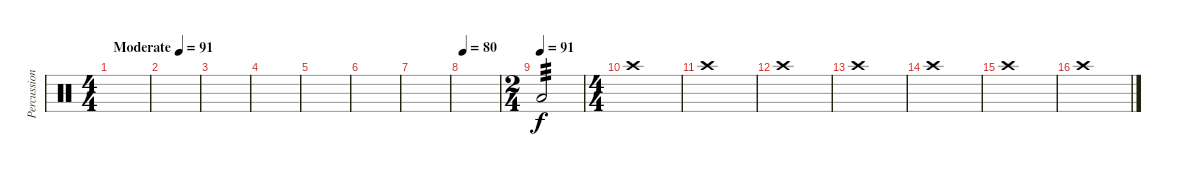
\track ("Percussion" "Percussion") {instrument percussion}
\staff {score}
\articulation defaults
\ts (4 4)
\tempo (91 "Moderate")
\clef neutral
\ks c
|
|
|
|
|
|
|
\tempo 80
|
\ts (2 4)
\tempo (91)
"Low Floor Tom (hit)".2{tp 3} |
\ts (4 4)
"Crash high (hit)".1 |
"Crash high (hit)".1 |
"Crash high (hit)".1 |
"Crash high (hit)".1 |
"Crash high (hit)".1 |
"Crash high (hit)".1 |
"Crash high (hit)".1
